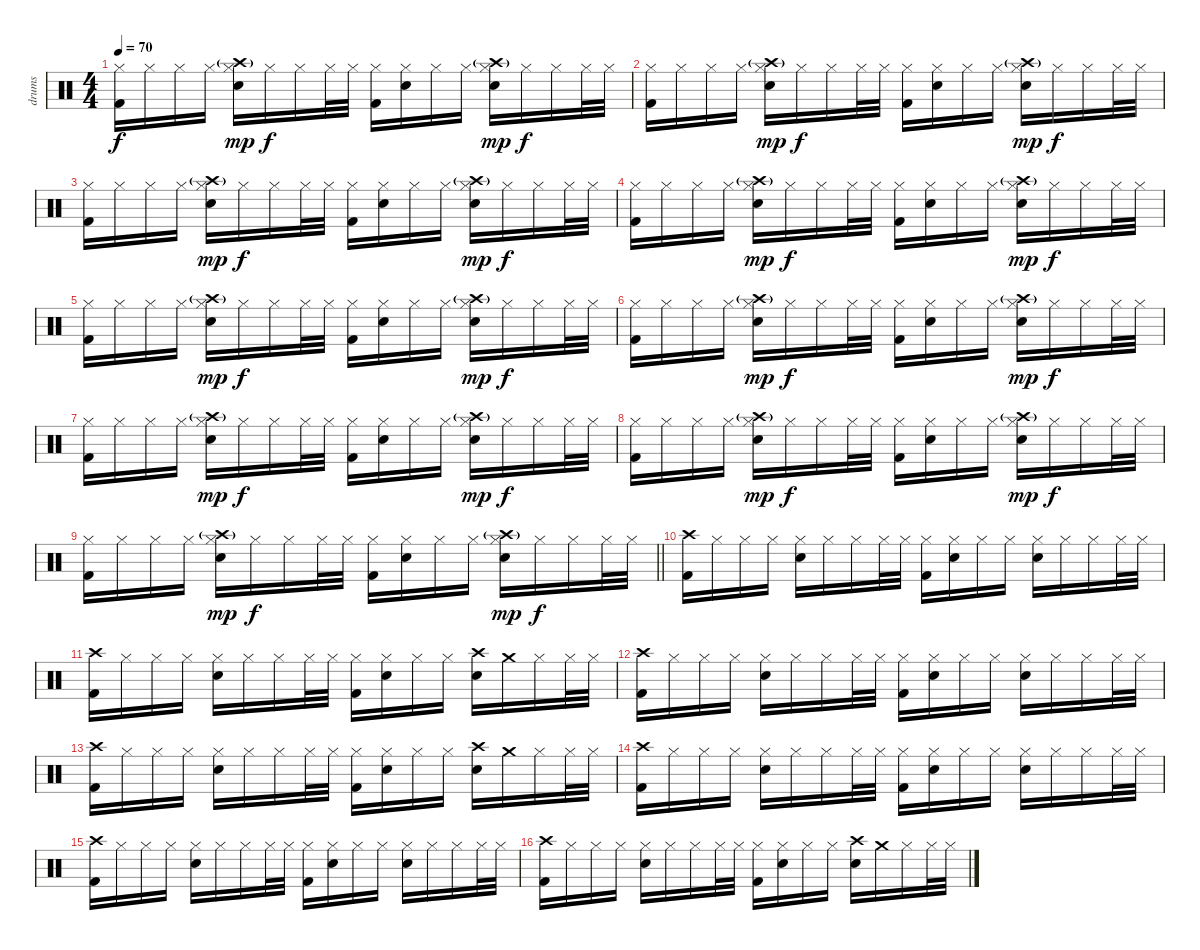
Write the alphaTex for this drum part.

\track ("drums" "drums") {instrument percussion}
\staff {score}
\articulation defaults
\ts (4 4)
\tempo 70
\clef neutral
\ks c
("Hi-Hat (closed)" "Kick (hit) 2").16{dy f} "Hi-Hat (closed)".16 "Hi-Hat (closed)".16 "Hi-Hat (closed)".16 ("Hi-Hat (closed)" "Crash high (hit)"{g} "Snare (hit) 2").16{dy mp} "Hi-Hat (closed)".16{dy f} "Hi-Hat (closed)".16 "Hi-Hat (closed)".32 "Hi-Hat (closed)".32 ("Hi-Hat (closed)" "Kick (hit) 2").16 ("Hi-Hat (closed)" "Snare (hit) 2").16 "Hi-Hat (closed)".16 "Hi-Hat (closed)".16 ("Hi-Hat (closed)" "Crash high (hit)"{g} "Snare (hit) 2").16{dy mp} "Hi-Hat (closed)".16{dy f} "Hi-Hat (closed)".16 "Hi-Hat (closed)".32 "Hi-Hat (closed)".32 |
("Hi-Hat (closed)" "Kick (hit) 2").16 "Hi-Hat (closed)".16 "Hi-Hat (closed)".16 "Hi-Hat (closed)".16 ("Hi-Hat (closed)" "Crash high (hit)"{g} "Snare (hit) 2").16{dy mp} "Hi-Hat (closed)".16{dy f} "Hi-Hat (closed)".16 "Hi-Hat (closed)".32 "Hi-Hat (closed)".32 ("Hi-Hat (closed)" "Kick (hit) 2").16 ("Hi-Hat (closed)" "Snare (hit) 2").16 "Hi-Hat (closed)".16 "Hi-Hat (closed)".16 ("Hi-Hat (closed)" "Crash high (hit)"{g} "Snare (hit) 2").16{dy mp} "Hi-Hat (closed)".16{dy f} "Hi-Hat (closed)".16 "Hi-Hat (closed)".32 "Hi-Hat (closed)".32 |
("Hi-Hat (closed)" "Kick (hit) 2").16 "Hi-Hat (closed)".16 "Hi-Hat (closed)".16 "Hi-Hat (closed)".16 ("Hi-Hat (closed)" "Crash high (hit)"{g} "Snare (hit) 2").16{dy mp} "Hi-Hat (closed)".16{dy f} "Hi-Hat (closed)".16 "Hi-Hat (closed)".32 "Hi-Hat (closed)".32 ("Hi-Hat (closed)" "Kick (hit) 2").16 ("Hi-Hat (closed)" "Snare (hit) 2").16 "Hi-Hat (closed)".16 "Hi-Hat (closed)".16 ("Hi-Hat (closed)" "Crash high (hit)"{g} "Snare (hit) 2").16{dy mp} "Hi-Hat (closed)".16{dy f} "Hi-Hat (closed)".16 "Hi-Hat (closed)".32 "Hi-Hat (closed)".32 |
("Hi-Hat (closed)" "Kick (hit) 2").16 "Hi-Hat (closed)".16 "Hi-Hat (closed)".16 "Hi-Hat (closed)".16 ("Hi-Hat (closed)" "Crash high (hit)"{g} "Snare (hit) 2").16{dy mp} "Hi-Hat (closed)".16{dy f} "Hi-Hat (closed)".16 "Hi-Hat (closed)".32 "Hi-Hat (closed)".32 ("Hi-Hat (closed)" "Kick (hit) 2").16 ("Hi-Hat (closed)" "Snare (hit) 2").16 "Hi-Hat (closed)".16 "Hi-Hat (closed)".16 ("Hi-Hat (closed)" "Crash high (hit)"{g} "Snare (hit) 2").16{dy mp} "Hi-Hat (closed)".16{dy f} "Hi-Hat (closed)".16 "Hi-Hat (closed)".32 "Hi-Hat (closed)".32 |
("Hi-Hat (closed)" "Kick (hit) 2").16 "Hi-Hat (closed)".16 "Hi-Hat (closed)".16 "Hi-Hat (closed)".16 ("Hi-Hat (closed)" "Crash high (hit)"{g} "Snare (hit) 2").16{dy mp} "Hi-Hat (closed)".16{dy f} "Hi-Hat (closed)".16 "Hi-Hat (closed)".32 "Hi-Hat (closed)".32 ("Hi-Hat (closed)" "Kick (hit) 2").16 ("Hi-Hat (closed)" "Snare (hit) 2").16 "Hi-Hat (closed)".16 "Hi-Hat (closed)".16 ("Hi-Hat (closed)" "Crash high (hit)"{g} "Snare (hit) 2").16{dy mp} "Hi-Hat (closed)".16{dy f} "Hi-Hat (closed)".16 "Hi-Hat (closed)".32 "Hi-Hat (closed)".32 |
("Hi-Hat (closed)" "Kick (hit) 2").16 "Hi-Hat (closed)".16 "Hi-Hat (closed)".16 "Hi-Hat (closed)".16 ("Hi-Hat (closed)" "Crash high (hit)"{g} "Snare (hit) 2").16{dy mp} "Hi-Hat (closed)".16{dy f} "Hi-Hat (closed)".16 "Hi-Hat (closed)".32 "Hi-Hat (closed)".32 ("Hi-Hat (closed)" "Kick (hit) 2").16 ("Hi-Hat (closed)" "Snare (hit) 2").16 "Hi-Hat (closed)".16 "Hi-Hat (closed)".16 ("Hi-Hat (closed)" "Crash high (hit)"{g} "Snare (hit) 2").16{dy mp} "Hi-Hat (closed)".16{dy f} "Hi-Hat (closed)".16 "Hi-Hat (closed)".32 "Hi-Hat (closed)".32 |
("Hi-Hat (closed)" "Kick (hit) 2").16 "Hi-Hat (closed)".16 "Hi-Hat (closed)".16 "Hi-Hat (closed)".16 ("Hi-Hat (closed)" "Crash high (hit)"{g} "Snare (hit) 2").16{dy mp} "Hi-Hat (closed)".16{dy f} "Hi-Hat (closed)".16 "Hi-Hat (closed)".32 "Hi-Hat (closed)".32 ("Hi-Hat (closed)" "Kick (hit) 2").16 ("Hi-Hat (closed)" "Snare (hit) 2").16 "Hi-Hat (closed)".16 "Hi-Hat (closed)".16 ("Hi-Hat (closed)" "Crash high (hit)"{g} "Snare (hit) 2").16{dy mp} "Hi-Hat (closed)".16{dy f} "Hi-Hat (closed)".16 "Hi-Hat (closed)".32 "Hi-Hat (closed)".32 |
("Hi-Hat (closed)" "Kick (hit) 2").16 "Hi-Hat (closed)".16 "Hi-Hat (closed)".16 "Hi-Hat (closed)".16 ("Hi-Hat (closed)" "Crash high (hit)"{g} "Snare (hit) 2").16{dy mp} "Hi-Hat (closed)".16{dy f} "Hi-Hat (closed)".16 "Hi-Hat (closed)".32 "Hi-Hat (closed)".32 ("Hi-Hat (closed)" "Kick (hit) 2").16 ("Hi-Hat (closed)" "Snare (hit) 2").16 "Hi-Hat (closed)".16 "Hi-Hat (closed)".16 ("Hi-Hat (closed)" "Crash high (hit)"{g} "Snare (hit) 2").16{dy mp} "Hi-Hat (closed)".16{dy f} "Hi-Hat (closed)".16 "Hi-Hat (closed)".32 "Hi-Hat (closed)".32 |
\barLineRight lightlight
("Hi-Hat (closed)" "Kick (hit) 2").16 "Hi-Hat (closed)".16 "Hi-Hat (closed)".16 "Hi-Hat (closed)".16 ("Hi-Hat (closed)" "Crash high (hit)"{g} "Snare (hit) 2").16{dy mp} "Hi-Hat (closed)".16{dy f} "Hi-Hat (closed)".16 "Hi-Hat (closed)".32 "Hi-Hat (closed)".32 ("Hi-Hat (closed)" "Kick (hit) 2").16 ("Hi-Hat (closed)" "Snare (hit) 2").16 "Hi-Hat (closed)".16 "Hi-Hat (closed)".16 ("Hi-Hat (closed)" "Crash high (hit)"{g} "Snare (hit) 2").16{dy mp} "Hi-Hat (closed)".16{dy f} "Hi-Hat (closed)".16 "Hi-Hat (closed)".32 "Hi-Hat (closed)".32 |
("Crash high (hit)" "Kick (hit) 2").16 "Hi-Hat (closed)".16 "Hi-Hat (closed)".16 "Hi-Hat (closed)".16 ("Hi-Hat (closed)" "Snare (hit) 2").16 "Hi-Hat (closed)".16 "Hi-Hat (closed)".16 "Hi-Hat (closed)".32 "Hi-Hat (closed)".32 ("Hi-Hat (closed)" "Kick (hit) 2").16 ("Hi-Hat (closed)" "Snare (hit) 2").16 "Hi-Hat (closed)".16 "Hi-Hat (closed)".16 ("Hi-Hat (closed)" "Snare (hit) 2").16 "Hi-Hat (closed)".16 "Hi-Hat (closed)".16 "Hi-Hat (closed)".32 "Hi-Hat (closed)".32 |
("Crash high (hit)" "Kick (hit) 2").16 "Hi-Hat (closed)".16 "Hi-Hat (closed)".16 "Hi-Hat (closed)".16 ("Hi-Hat (closed)" "Snare (hit) 2").16 "Hi-Hat (closed)".16 "Hi-Hat (closed)".16 "Hi-Hat (closed)".32 "Hi-Hat (closed)".32 ("Hi-Hat (closed)" "Kick (hit) 2").16 ("Hi-Hat (closed)" "Snare (hit) 2").16 "Hi-Hat (closed)".16 "Hi-Hat (closed)".16 ("Crash high (hit)" "Snare (hit) 2").16 "Crash medium (hit)".16 "Hi-Hat (closed)".16 "Hi-Hat (closed)".32 "Hi-Hat (closed)".32 |
("Crash high (hit)" "Kick (hit) 2").16 "Hi-Hat (closed)".16 "Hi-Hat (closed)".16 "Hi-Hat (closed)".16 ("Hi-Hat (closed)" "Snare (hit) 2").16 "Hi-Hat (closed)".16 "Hi-Hat (closed)".16 "Hi-Hat (closed)".32 "Hi-Hat (closed)".32 ("Hi-Hat (closed)" "Kick (hit) 2").16 ("Hi-Hat (closed)" "Snare (hit) 2").16 "Hi-Hat (closed)".16 "Hi-Hat (closed)".16 ("Hi-Hat (closed)" "Snare (hit) 2").16 "Hi-Hat (closed)".16 "Hi-Hat (closed)".16 "Hi-Hat (closed)".32 "Hi-Hat (closed)".32 |
("Crash high (hit)" "Kick (hit) 2").16 "Hi-Hat (closed)".16 "Hi-Hat (closed)".16 "Hi-Hat (closed)".16 ("Hi-Hat (closed)" "Snare (hit) 2").16 "Hi-Hat (closed)".16 "Hi-Hat (closed)".16 "Hi-Hat (closed)".32 "Hi-Hat (closed)".32 ("Hi-Hat (closed)" "Kick (hit) 2").16 ("Hi-Hat (closed)" "Snare (hit) 2").16 "Hi-Hat (closed)".16 "Hi-Hat (closed)".16 ("Crash high (hit)" "Snare (hit) 2").16 "Crash medium (hit)".16 "Hi-Hat (closed)".16 "Hi-Hat (closed)".32 "Hi-Hat (closed)".32 |
("Crash high (hit)" "Kick (hit) 2").16 "Hi-Hat (closed)".16 "Hi-Hat (closed)".16 "Hi-Hat (closed)".16 ("Hi-Hat (closed)" "Snare (hit) 2").16 "Hi-Hat (closed)".16 "Hi-Hat (closed)".16 "Hi-Hat (closed)".32 "Hi-Hat (closed)".32 ("Hi-Hat (closed)" "Kick (hit) 2").16 ("Hi-Hat (closed)" "Snare (hit) 2").16 "Hi-Hat (closed)".16 "Hi-Hat (closed)".16 ("Hi-Hat (closed)" "Snare (hit) 2").16 "Hi-Hat (closed)".16 "Hi-Hat (closed)".16 "Hi-Hat (closed)".32 "Hi-Hat (closed)".32 |
("Crash high (hit)" "Kick (hit) 2").16 "Hi-Hat (closed)".16 "Hi-Hat (closed)".16 "Hi-Hat (closed)".16 ("Hi-Hat (closed)" "Snare (hit) 2").16 "Hi-Hat (closed)".16 "Hi-Hat (closed)".16 "Hi-Hat (closed)".32 "Hi-Hat (closed)".32 ("Hi-Hat (closed)" "Kick (hit) 2").16 ("Hi-Hat (closed)" "Snare (hit) 2").16 "Hi-Hat (closed)".16 "Hi-Hat (closed)".16 ("Hi-Hat (closed)" "Snare (hit) 2").16 "Hi-Hat (closed)".16 "Hi-Hat (closed)".16 "Hi-Hat (closed)".32 "Hi-Hat (closed)".32 |
("Crash high (hit)" "Kick (hit) 2").16 "Hi-Hat (closed)".16 "Hi-Hat (closed)".16 "Hi-Hat (closed)".16 ("Hi-Hat (closed)" "Snare (hit) 2").16 "Hi-Hat (closed)".16 "Hi-Hat (closed)".16 "Hi-Hat (closed)".32 "Hi-Hat (closed)".32 ("Hi-Hat (closed)" "Kick (hit) 2").16 ("Hi-Hat (closed)" "Snare (hit) 2").16 "Hi-Hat (closed)".16 "Hi-Hat (closed)".16 ("Crash high (hit)" "Snare (hit) 2").16 "Crash medium (hit)".16 "Hi-Hat (closed)".16 "Hi-Hat (closed)".32 "Hi-Hat (closed)".32
